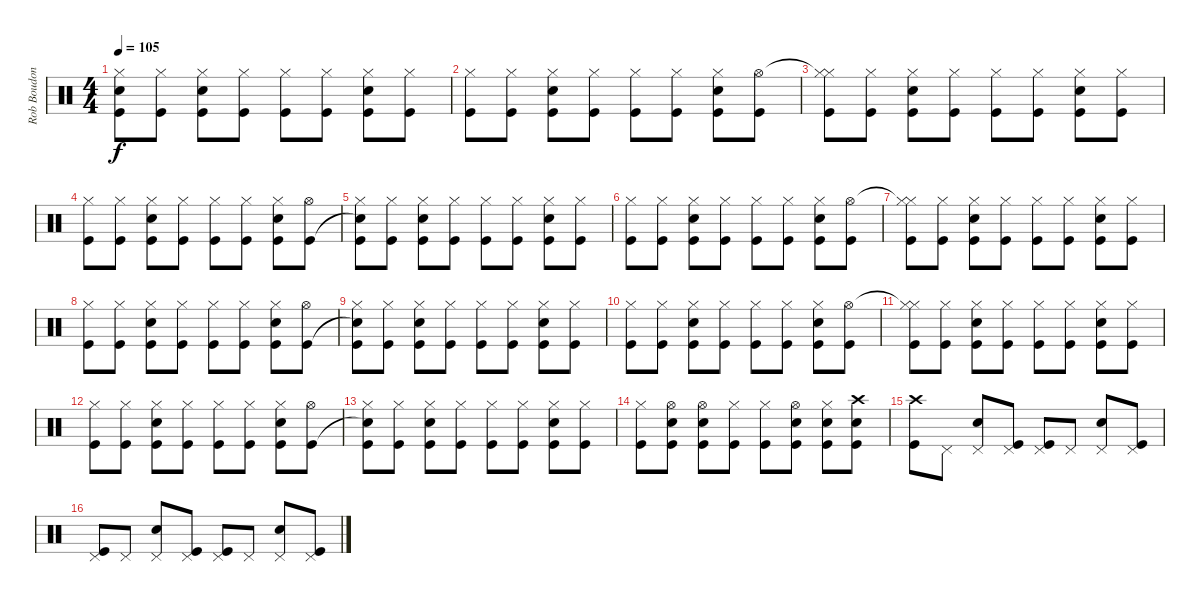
\track ("Rob Boudon [Drums]" "Rob Boudon") {instrument percussion}
\staff {score}
\articulation defaults
\ts (4 4)
\tempo 105
\clef neutral
\ks c
("Hi-Hat (closed)" "Snare (hit)"{t} "Kick (hit)").8{dy f} ("Hi-Hat (closed)" "Kick (hit)").8 ("Hi-Hat (closed)" "Electric Snare (hit)" "Kick (hit)").8 ("Hi-Hat (closed)" "Kick (hit)").8 ("Hi-Hat (closed)" "Kick (hit)").8 ("Hi-Hat (closed)" "Kick (hit)").8 ("Hi-Hat (closed)" "Electric Snare (hit)" "Kick (hit)").8 ("Hi-Hat (closed)" "Kick (hit)").8 |
("Hi-Hat (closed)" "Kick (hit)").8 ("Hi-Hat (closed)" "Kick (hit)").8 ("Hi-Hat (closed)" "Electric Snare (hit)" "Kick (hit)").8 ("Hi-Hat (closed)" "Kick (hit)").8 ("Hi-Hat (closed)" "Kick (hit)").8 ("Hi-Hat (closed)" "Kick (hit)").8 ("Hi-Hat (closed)" "Electric Snare (hit)" "Kick (hit)").8 ("Hi-Hat (open)" "Kick (hit)").8 |
("Hi-Hat (closed)"{t} "Hi-Hat (closed)" "Kick (hit)").8 ("Hi-Hat (closed)" "Kick (hit)").8 ("Hi-Hat (closed)" "Electric Snare (hit)" "Kick (hit)").8 ("Hi-Hat (closed)" "Kick (hit)").8 ("Hi-Hat (closed)" "Kick (hit)").8 ("Hi-Hat (closed)" "Kick (hit)").8 ("Hi-Hat (closed)" "Electric Snare (hit)" "Kick (hit)").8 ("Hi-Hat (closed)" "Kick (hit)").8 |
("Hi-Hat (closed)" "Kick (hit)").8 ("Hi-Hat (closed)" "Kick (hit)").8 ("Hi-Hat (closed)" "Electric Snare (hit)" "Kick (hit)").8 ("Hi-Hat (closed)" "Kick (hit)").8 ("Hi-Hat (closed)" "Kick (hit)").8 ("Hi-Hat (closed)" "Kick (hit)").8 ("Hi-Hat (closed)" "Electric Snare (hit)" "Kick (hit)").8 ("Hi-Hat (open)" "Kick (hit)").8 |
("Hi-Hat (closed)" "Snare (hit)"{t} "Kick (hit)").8 ("Hi-Hat (closed)" "Kick (hit)").8 ("Hi-Hat (closed)" "Electric Snare (hit)" "Kick (hit)").8 ("Hi-Hat (closed)" "Kick (hit)").8 ("Hi-Hat (closed)" "Kick (hit)").8 ("Hi-Hat (closed)" "Kick (hit)").8 ("Hi-Hat (closed)" "Electric Snare (hit)" "Kick (hit)").8 ("Hi-Hat (closed)" "Kick (hit)").8 |
("Hi-Hat (closed)" "Kick (hit)").8 ("Hi-Hat (closed)" "Kick (hit)").8 ("Hi-Hat (closed)" "Electric Snare (hit)" "Kick (hit)").8 ("Hi-Hat (closed)" "Kick (hit)").8 ("Hi-Hat (closed)" "Kick (hit)").8 ("Hi-Hat (closed)" "Kick (hit)").8 ("Hi-Hat (closed)" "Electric Snare (hit)" "Kick (hit)").8 ("Hi-Hat (open)" "Kick (hit)").8 |
("Hi-Hat (closed)"{t} "Hi-Hat (closed)" "Kick (hit)").8 ("Hi-Hat (closed)" "Kick (hit)").8 ("Hi-Hat (closed)" "Electric Snare (hit)" "Kick (hit)").8 ("Hi-Hat (closed)" "Kick (hit)").8 ("Hi-Hat (closed)" "Kick (hit)").8 ("Hi-Hat (closed)" "Kick (hit)").8 ("Hi-Hat (closed)" "Electric Snare (hit)" "Kick (hit)").8 ("Hi-Hat (closed)" "Kick (hit)").8 |
("Hi-Hat (closed)" "Kick (hit)").8 ("Hi-Hat (closed)" "Kick (hit)").8 ("Hi-Hat (closed)" "Electric Snare (hit)" "Kick (hit)").8 ("Hi-Hat (closed)" "Kick (hit)").8 ("Hi-Hat (closed)" "Kick (hit)").8 ("Hi-Hat (closed)" "Kick (hit)").8 ("Hi-Hat (closed)" "Electric Snare (hit)" "Kick (hit)").8 ("Hi-Hat (open)" "Kick (hit)").8 |
("Hi-Hat (closed)" "Snare (hit)"{t} "Kick (hit)").8 ("Hi-Hat (closed)" "Kick (hit)").8 ("Hi-Hat (closed)" "Electric Snare (hit)" "Kick (hit)").8 ("Hi-Hat (closed)" "Kick (hit)").8 ("Hi-Hat (closed)" "Kick (hit)").8 ("Hi-Hat (closed)" "Kick (hit)").8 ("Hi-Hat (closed)" "Electric Snare (hit)" "Kick (hit)").8 ("Hi-Hat (closed)" "Kick (hit)").8 |
("Hi-Hat (closed)" "Kick (hit)").8 ("Hi-Hat (closed)" "Kick (hit)").8 ("Hi-Hat (closed)" "Electric Snare (hit)" "Kick (hit)").8 ("Hi-Hat (closed)" "Kick (hit)").8 ("Hi-Hat (closed)" "Kick (hit)").8 ("Hi-Hat (closed)" "Kick (hit)").8 ("Hi-Hat (closed)" "Electric Snare (hit)" "Kick (hit)").8 ("Hi-Hat (open)" "Kick (hit)").8 |
("Hi-Hat (closed)"{t} "Hi-Hat (closed)" "Kick (hit)").8 ("Hi-Hat (closed)" "Kick (hit)").8 ("Hi-Hat (closed)" "Electric Snare (hit)" "Kick (hit)").8 ("Hi-Hat (closed)" "Kick (hit)").8 ("Hi-Hat (closed)" "Kick (hit)").8 ("Hi-Hat (closed)" "Kick (hit)").8 ("Hi-Hat (closed)" "Electric Snare (hit)" "Kick (hit)").8 ("Hi-Hat (closed)" "Kick (hit)").8 |
("Hi-Hat (closed)" "Kick (hit)").8 ("Hi-Hat (closed)" "Kick (hit)").8 ("Hi-Hat (closed)" "Electric Snare (hit)" "Kick (hit)").8 ("Hi-Hat (closed)" "Kick (hit)").8 ("Hi-Hat (closed)" "Kick (hit)").8 ("Hi-Hat (closed)" "Kick (hit)").8 ("Hi-Hat (closed)" "Electric Snare (hit)" "Kick (hit)").8 ("Hi-Hat (open)" "Kick (hit)").8 |
("Hi-Hat (closed)" "Snare (hit)"{t} "Kick (hit)").8 ("Hi-Hat (closed)" "Kick (hit)").8 ("Hi-Hat (closed)" "Electric Snare (hit)" "Kick (hit)").8 ("Hi-Hat (closed)" "Kick (hit)").8 ("Hi-Hat (closed)" "Kick (hit)").8 ("Hi-Hat (closed)" "Kick (hit)").8 ("Hi-Hat (closed)" "Electric Snare (hit)" "Kick (hit)").8 ("Hi-Hat (closed)" "Kick (hit)").8 |
("Hi-Hat (closed)" "Kick (hit)").8 ("Hi-Hat (open)" "Electric Snare (hit)" "Kick (hit)").8 ("Hi-Hat (open)" "Electric Snare (hit)" "Kick (hit)").8 ("Hi-Hat (closed)" "Kick (hit)").8 ("Hi-Hat (closed)" "Kick (hit)").8 ("Hi-Hat (open)" "Electric Snare (hit)" "Kick (hit)").8 ("Hi-Hat (closed)" "Electric Snare (hit)" "Kick (hit)").8 ("Electric Snare (hit)" "Crash high (hit)" "Kick (hit)").8 |
("Crash high (hit)" "Kick (hit)").8 "Pedal Hi-Hat (hit)".8 ("Pedal Hi-Hat (hit)" "Electric Snare (hit)").8 ("Pedal Hi-Hat (hit)" "Kick (hit)").8 ("Pedal Hi-Hat (hit)" "Kick (hit)").8 "Pedal Hi-Hat (hit)".8 ("Pedal Hi-Hat (hit)" "Electric Snare (hit)").8 ("Pedal Hi-Hat (hit)" "Kick (hit)").8 |
("Pedal Hi-Hat (hit)" "Kick (hit)").8 "Pedal Hi-Hat (hit)".8 ("Electric Snare (hit)" "Pedal Hi-Hat (hit)").8 ("Pedal Hi-Hat (hit)" "Kick (hit)").8 ("Pedal Hi-Hat (hit)" "Kick (hit)").8 "Pedal Hi-Hat (hit)".8 ("Pedal Hi-Hat (hit)" "Electric Snare (hit)").8 ("Pedal Hi-Hat (hit)" "Kick (hit)").8
